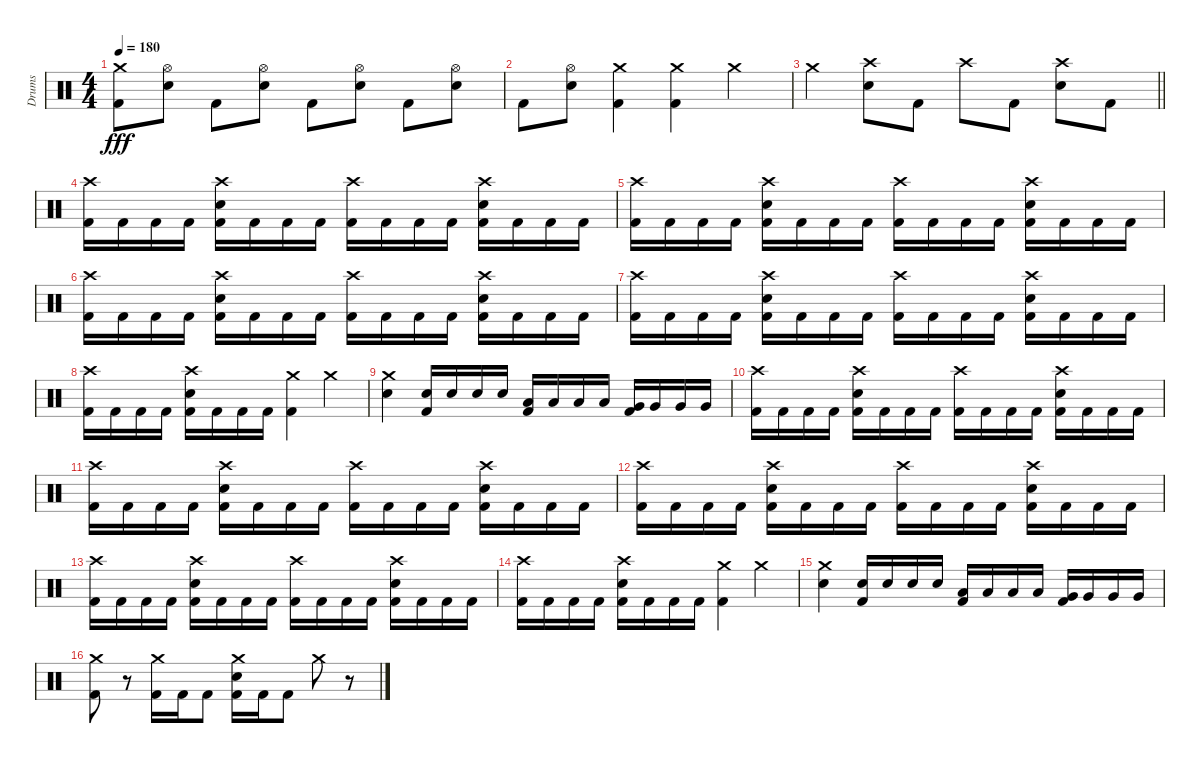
\track ("Drums " "Drums ") {instrument percussion}
\staff {score}
\articulation defaults
\ts (4 4)
\tempo 180
\clef neutral
\ks c
("Crash medium (hit)" "Kick (hit) 2").8{dy fff} ("Hi-Hat (open)" "Snare (hit) 2").8 "Kick (hit) 2".8 ("Hi-Hat (open)" "Snare (hit) 2").8 "Kick (hit) 2".8 ("Hi-Hat (open)" "Snare (hit) 2").8 "Kick (hit) 2".8 ("Hi-Hat (open)" "Snare (hit) 2").8 |
"Kick (hit) 2".8 ("Hi-Hat (open)" "Snare (hit) 2").8 ("Crash medium (hit)" "Kick (hit) 2").4 ("Crash medium (hit)" "Kick (hit) 2").4 "Crash medium (hit)".4 |
\barLineRight lightlight "Crash medium (hit)".4
("Crash high (hit)" "Snare (hit) 2").8 "Kick (hit) 2".8 "Crash high (hit)".8 "Kick (hit) 2".8 ("Crash high (hit)" "Snare (hit) 2").8 "Kick (hit) 2".8 |
("Crash high (hit)" "Kick (hit) 2").16 "Kick (hit) 2".16 "Kick (hit) 2".16 "Kick (hit) 2".16 ("Crash high (hit)" "Snare (hit) 2" "Kick (hit) 2").16 "Kick (hit) 2".16 "Kick (hit) 2".16 "Kick (hit) 2".16 ("Crash high (hit)" "Kick (hit) 2").16 "Kick (hit) 2".16 "Kick (hit) 2".16 "Kick (hit) 2".16 ("Crash high (hit)" "Snare (hit) 2" "Kick (hit) 2").16 "Kick (hit) 2".16 "Kick (hit) 2".16 "Kick (hit) 2".16 |
("Crash high (hit)" "Kick (hit) 2").16 "Kick (hit) 2".16 "Kick (hit) 2".16 "Kick (hit) 2".16 ("Crash high (hit)" "Snare (hit) 2" "Kick (hit) 2").16 "Kick (hit) 2".16 "Kick (hit) 2".16 "Kick (hit) 2".16 ("Crash high (hit)" "Kick (hit) 2").16 "Kick (hit) 2".16 "Kick (hit) 2".16 "Kick (hit) 2".16 ("Crash high (hit)" "Snare (hit) 2" "Kick (hit) 2").16 "Kick (hit) 2".16 "Kick (hit) 2".16 "Kick (hit) 2".16 |
("Crash high (hit)" "Kick (hit) 2").16 "Kick (hit) 2".16 "Kick (hit) 2".16 "Kick (hit) 2".16 ("Crash high (hit)" "Snare (hit) 2" "Kick (hit) 2").16 "Kick (hit) 2".16 "Kick (hit) 2".16 "Kick (hit) 2".16 ("Crash high (hit)" "Kick (hit) 2").16 "Kick (hit) 2".16 "Kick (hit) 2".16 "Kick (hit) 2".16 ("Crash high (hit)" "Snare (hit) 2" "Kick (hit) 2").16 "Kick (hit) 2".16 "Kick (hit) 2".16 "Kick (hit) 2".16 |
("Crash high (hit)" "Kick (hit) 2").16 "Kick (hit) 2".16 "Kick (hit) 2".16 "Kick (hit) 2".16 ("Crash high (hit)" "Snare (hit) 2" "Kick (hit) 2").16 "Kick (hit) 2".16 "Kick (hit) 2".16 "Kick (hit) 2".16 ("Crash high (hit)" "Kick (hit) 2").16 "Kick (hit) 2".16 "Kick (hit) 2".16 "Kick (hit) 2".16 ("Crash high (hit)" "Snare (hit) 2" "Kick (hit) 2").16 "Kick (hit) 2".16 "Kick (hit) 2".16 "Kick (hit) 2".16 |
("Crash high (hit)" "Kick (hit) 2").16 "Kick (hit) 2".16 "Kick (hit) 2".16 "Kick (hit) 2".16 ("Crash high (hit)" "Snare (hit) 2" "Kick (hit) 2").16 "Kick (hit) 2".16 "Kick (hit) 2".16 "Kick (hit) 2".16 ("Crash medium (hit)" "Kick (hit) 2").4 "Crash medium (hit)".4 |
("Crash medium (hit)" "Snare (hit) 2").4 ("Snare (hit) 2" "Kick (hit) 2").16 "Snare (hit) 2".16 "Snare (hit) 2".16 "Snare (hit) 2".16 ("Low Tom (hit)" "Kick (hit) 2").16 "Low Tom (hit)".16 "Low Tom (hit)".16 "Low Tom (hit)".16 ("Very Low Tom (hit)" "Kick (hit) 2").16 "Very Low Tom (hit)".16 "Very Low Tom (hit)".16 "Very Low Tom (hit)".16 |
("Crash high (hit)" "Kick (hit) 2").16 "Kick (hit) 2".16 "Kick (hit) 2".16 "Kick (hit) 2".16 ("Crash high (hit)" "Snare (hit) 2" "Kick (hit) 2").16 "Kick (hit) 2".16 "Kick (hit) 2".16 "Kick (hit) 2".16 ("Crash high (hit)" "Kick (hit) 2").16 "Kick (hit) 2".16 "Kick (hit) 2".16 "Kick (hit) 2".16 ("Crash high (hit)" "Snare (hit) 2" "Kick (hit) 2").16 "Kick (hit) 2".16 "Kick (hit) 2".16 "Kick (hit) 2".16 |
("Crash high (hit)" "Kick (hit) 2").16 "Kick (hit) 2".16 "Kick (hit) 2".16 "Kick (hit) 2".16 ("Crash high (hit)" "Snare (hit) 2" "Kick (hit) 2").16 "Kick (hit) 2".16 "Kick (hit) 2".16 "Kick (hit) 2".16 ("Crash high (hit)" "Kick (hit) 2").16 "Kick (hit) 2".16 "Kick (hit) 2".16 "Kick (hit) 2".16 ("Crash high (hit)" "Snare (hit) 2" "Kick (hit) 2").16 "Kick (hit) 2".16 "Kick (hit) 2".16 "Kick (hit) 2".16 |
("Crash high (hit)" "Kick (hit) 2").16 "Kick (hit) 2".16 "Kick (hit) 2".16 "Kick (hit) 2".16 ("Crash high (hit)" "Snare (hit) 2" "Kick (hit) 2").16 "Kick (hit) 2".16 "Kick (hit) 2".16 "Kick (hit) 2".16 ("Crash high (hit)" "Kick (hit) 2").16 "Kick (hit) 2".16 "Kick (hit) 2".16 "Kick (hit) 2".16 ("Crash high (hit)" "Snare (hit) 2" "Kick (hit) 2").16 "Kick (hit) 2".16 "Kick (hit) 2".16 "Kick (hit) 2".16 |
("Crash high (hit)" "Kick (hit) 2").16 "Kick (hit) 2".16 "Kick (hit) 2".16 "Kick (hit) 2".16 ("Crash high (hit)" "Snare (hit) 2" "Kick (hit) 2").16 "Kick (hit) 2".16 "Kick (hit) 2".16 "Kick (hit) 2".16 ("Crash high (hit)" "Kick (hit) 2").16 "Kick (hit) 2".16 "Kick (hit) 2".16 "Kick (hit) 2".16 ("Crash high (hit)" "Snare (hit) 2" "Kick (hit) 2").16 "Kick (hit) 2".16 "Kick (hit) 2".16 "Kick (hit) 2".16 |
("Crash high (hit)" "Kick (hit) 2").16 "Kick (hit) 2".16 "Kick (hit) 2".16 "Kick (hit) 2".16 ("Crash high (hit)" "Snare (hit) 2" "Kick (hit) 2").16 "Kick (hit) 2".16 "Kick (hit) 2".16 "Kick (hit) 2".16 ("Crash medium (hit)" "Kick (hit) 2").4 "Crash medium (hit)".4 |
("Crash medium (hit)" "Snare (hit) 2").4 ("Snare (hit) 2" "Kick (hit) 2").16 "Snare (hit) 2".16 "Snare (hit) 2".16 "Snare (hit) 2".16 ("Low Tom (hit)" "Kick (hit) 2").16 "Low Tom (hit)".16 "Low Tom (hit)".16 "Low Tom (hit)".16 ("Very Low Tom (hit)" "Kick (hit) 2").16 "Very Low Tom (hit)".16 "Very Low Tom (hit)".16 "Very Low Tom (hit)".16 |
("Crash medium (hit)" "Kick (hit) 2").8 r.8 ("Crash medium (hit)" "Kick (hit) 2").16 "Kick (hit) 2".16 "Kick (hit) 2".8 ("Crash medium (hit)" "Snare (hit) 2" "Kick (hit) 2").16 "Kick (hit) 2".16 "Kick (hit) 2".8 "Crash medium (hit)".8 r.8
